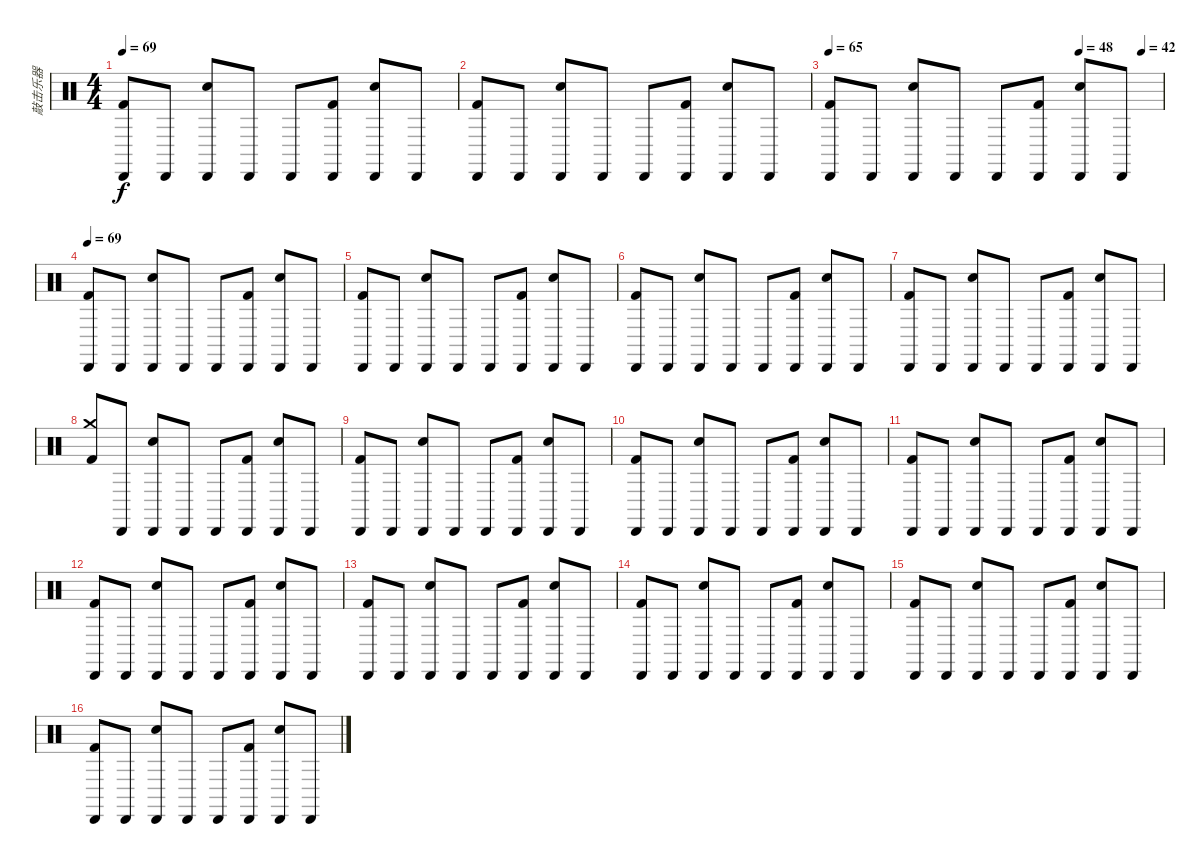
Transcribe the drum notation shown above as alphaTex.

\track ("敲击乐器" "敲击乐器") {instrument percussion}
\staff {score}
\articulation defaults
\ts (4 4)
\tempo 69
\clef neutral
\ks c
("Cabasa (hit)" "Kick (hit) 2").8{dy f} "Cabasa (hit)".8 ("Cabasa (hit)" "Electric Snare (hit)").8 "Cabasa (hit)".8 "Cabasa (hit)".8 ("Cabasa (hit)" "Kick (hit) 2").8 ("Cabasa (hit)" "Electric Snare (hit)").8 "Cabasa (hit)".8 |
("Cabasa (hit)" "Kick (hit) 2").8 "Cabasa (hit)".8 ("Cabasa (hit)" "Electric Snare (hit)").8 "Cabasa (hit)".8 "Cabasa (hit)".8 ("Cabasa (hit)" "Kick (hit) 2").8 ("Cabasa (hit)" "Electric Snare (hit)").8 "Cabasa (hit)".8 |
\tempo 65
\tempo (48 0.75)
\tempo (42 0.9375)
("Cabasa (hit)" "Kick (hit) 2").8 "Cabasa (hit)".8 ("Cabasa (hit)" "Electric Snare (hit)").8 "Cabasa (hit)".8 "Cabasa (hit)".8 ("Cabasa (hit)" "Kick (hit) 2").8 ("Cabasa (hit)" "Electric Snare (hit)").8 "Cabasa (hit)".8 |
\tempo 69
("Cabasa (hit)" "Kick (hit) 2").8 "Cabasa (hit)".8 ("Cabasa (hit)" "Electric Snare (hit)").8 "Cabasa (hit)".8 "Cabasa (hit)".8 ("Cabasa (hit)" "Kick (hit) 2").8 ("Cabasa (hit)" "Electric Snare (hit)").8 "Cabasa (hit)".8 |
("Cabasa (hit)" "Kick (hit) 2").8 "Cabasa (hit)".8 ("Cabasa (hit)" "Electric Snare (hit)").8 "Cabasa (hit)".8 "Cabasa (hit)".8 ("Cabasa (hit)" "Kick (hit) 2").8 ("Cabasa (hit)" "Electric Snare (hit)").8 "Cabasa (hit)".8 |
("Cabasa (hit)" "Kick (hit) 2").8 "Cabasa (hit)".8 ("Cabasa (hit)" "Electric Snare (hit)").8 "Cabasa (hit)".8 "Cabasa (hit)".8 ("Cabasa (hit)" "Kick (hit) 2").8 ("Cabasa (hit)" "Electric Snare (hit)").8 "Cabasa (hit)".8 |
("Cabasa (hit)" "Kick (hit) 2").8 "Cabasa (hit)".8 ("Cabasa (hit)" "Electric Snare (hit)").8 "Cabasa (hit)".8 "Cabasa (hit)".8 ("Cabasa (hit)" "Kick (hit) 2").8 ("Cabasa (hit)" "Electric Snare (hit)").8 "Cabasa (hit)".8 |
("Crash medium (hit)" "Kick (hit) 2").8 "Cabasa (hit)".8 ("Cabasa (hit)" "Electric Snare (hit)").8 "Cabasa (hit)".8 "Cabasa (hit)".8 ("Cabasa (hit)" "Kick (hit) 2").8 ("Cabasa (hit)" "Electric Snare (hit)").8 "Cabasa (hit)".8 |
("Cabasa (hit)" "Kick (hit) 2").8 "Cabasa (hit)".8 ("Cabasa (hit)" "Electric Snare (hit)").8 "Cabasa (hit)".8 "Cabasa (hit)".8 ("Cabasa (hit)" "Kick (hit) 2").8 ("Cabasa (hit)" "Electric Snare (hit)").8 "Cabasa (hit)".8 |
("Cabasa (hit)" "Kick (hit) 2").8 "Cabasa (hit)".8 ("Cabasa (hit)" "Electric Snare (hit)").8 "Cabasa (hit)".8 "Cabasa (hit)".8 ("Cabasa (hit)" "Kick (hit) 2").8 ("Cabasa (hit)" "Electric Snare (hit)").8 "Cabasa (hit)".8 |
("Cabasa (hit)" "Kick (hit) 2").8 "Cabasa (hit)".8 ("Cabasa (hit)" "Electric Snare (hit)").8 "Cabasa (hit)".8 "Cabasa (hit)".8 ("Cabasa (hit)" "Kick (hit) 2").8 ("Cabasa (hit)" "Electric Snare (hit)").8 "Cabasa (hit)".8 |
("Cabasa (hit)" "Kick (hit) 2").8 "Cabasa (hit)".8 ("Cabasa (hit)" "Electric Snare (hit)").8 "Cabasa (hit)".8 "Cabasa (hit)".8 ("Cabasa (hit)" "Kick (hit) 2").8 ("Cabasa (hit)" "Electric Snare (hit)").8 "Cabasa (hit)".8 |
("Cabasa (hit)" "Kick (hit) 2").8 "Cabasa (hit)".8 ("Cabasa (hit)" "Electric Snare (hit)").8 "Cabasa (hit)".8 "Cabasa (hit)".8 ("Cabasa (hit)" "Kick (hit) 2").8 ("Cabasa (hit)" "Electric Snare (hit)").8 "Cabasa (hit)".8 |
("Cabasa (hit)" "Kick (hit) 2").8 "Cabasa (hit)".8 ("Cabasa (hit)" "Electric Snare (hit)").8 "Cabasa (hit)".8 "Cabasa (hit)".8 ("Cabasa (hit)" "Kick (hit) 2").8 ("Cabasa (hit)" "Electric Snare (hit)").8 "Cabasa (hit)".8 |
("Cabasa (hit)" "Kick (hit) 2").8 "Cabasa (hit)".8 ("Cabasa (hit)" "Electric Snare (hit)").8 "Cabasa (hit)".8 "Cabasa (hit)".8 ("Cabasa (hit)" "Kick (hit) 2").8 ("Cabasa (hit)" "Electric Snare (hit)").8 "Cabasa (hit)".8 |
("Cabasa (hit)" "Kick (hit) 2").8 "Cabasa (hit)".8 ("Cabasa (hit)" "Electric Snare (hit)").8 "Cabasa (hit)".8 "Cabasa (hit)".8 ("Cabasa (hit)" "Kick (hit) 2").8 ("Cabasa (hit)" "Electric Snare (hit)").8 "Cabasa (hit)".8
